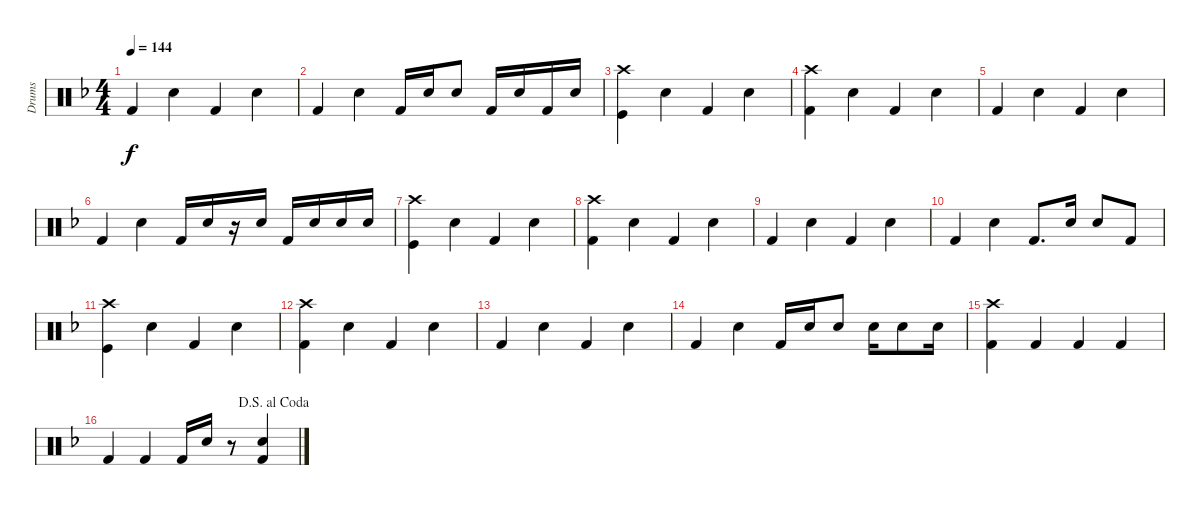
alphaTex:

\track ("Drums" "Drums") {instrument percussion}
\staff {score}
\articulation defaults
\ts (4 4)
\tempo 144
\clef neutral
\ks f "Kick (hit) 2".4{dy f} "Snare (hit) 2".4 "Kick (hit) 2".4 "Snare (hit) 2".4
|
"Kick (hit) 2".4 "Snare (hit) 2".4 "Kick (hit) 2".16 "Snare (hit) 2".16 "Snare (hit) 2".8 "Kick (hit) 2".16 "Snare (hit) 2".16 "Kick (hit) 2".16 "Snare (hit) 2".16 |
("Crash high (hit)" "Kick (hit)").4 "Snare (hit) 2".4 "Kick (hit) 2".4 "Snare (hit) 2".4 |
("Crash high (hit)" "Kick (hit) 2").4 "Snare (hit) 2".4 "Kick (hit) 2".4 "Snare (hit) 2".4 |
"Kick (hit) 2".4 "Snare (hit) 2".4 "Kick (hit) 2".4 "Snare (hit) 2".4 |
"Kick (hit) 2".4 "Snare (hit) 2".4 "Kick (hit) 2".16 "Snare (hit) 2".16 r.16 "Snare (hit) 2".16 "Kick (hit) 2".16 "Snare (hit) 2".16 "Snare (hit) 2".16 "Snare (hit) 2".16 |
("Crash high (hit)" "Kick (hit)").4 "Snare (hit) 2".4 "Kick (hit) 2".4 "Snare (hit) 2".4 |
("Crash high (hit)" "Kick (hit) 2").4 "Snare (hit) 2".4 "Kick (hit) 2".4 "Snare (hit) 2".4 |
"Kick (hit) 2".4 "Snare (hit) 2".4 "Kick (hit) 2".4 "Snare (hit) 2".4 |
"Kick (hit) 2".4 "Snare (hit) 2".4 "Kick (hit) 2".8{d} "Snare (hit) 2".16 "Snare (hit) 2".8 "Kick (hit) 2".8 |
("Crash high (hit)" "Kick (hit)").4 "Snare (hit) 2".4 "Kick (hit) 2".4 "Snare (hit) 2".4 |
("Crash high (hit)" "Kick (hit) 2").4 "Snare (hit) 2".4 "Kick (hit) 2".4 "Snare (hit) 2".4 |
"Kick (hit) 2".4 "Snare (hit) 2".4 "Kick (hit) 2".4 "Snare (hit) 2".4 |
"Kick (hit) 2".4 "Snare (hit) 2".4 "Kick (hit) 2".16 "Snare (hit) 2".16 "Snare (hit) 2".8 "Snare (hit) 2".16 "Snare (hit) 2".8 "Snare (hit) 2".16 |
("Crash high (hit)" "Kick (hit) 2").4 "Kick (hit) 2".4 "Kick (hit) 2".4 "Kick (hit) 2".4 |
\jump dalsegnoalcoda "Kick (hit) 2".4 "Kick (hit) 2".4 "Kick (hit) 2".16 "Electric Snare (hit)".16
r.8 ("Electric Snare (hit)" "Kick (hit) 2").4
